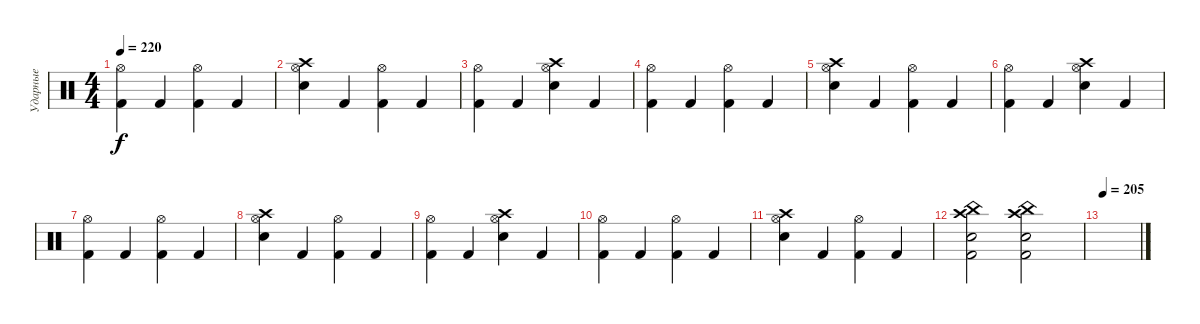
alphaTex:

\track ("Ударные" "Ударные") {instrument percussion}
\staff {score}
\articulation defaults
\ts (4 4)
\tempo 220
\clef neutral
\ks c
("Kick (hit) 2" "Hi-Hat (open)").4{dy f} "Kick (hit) 2".4 ("Kick (hit) 2" "Hi-Hat (open)").4 "Kick (hit) 2".4 |
("Electric Snare (hit)" "Hi-Hat (open)" "Crash high (hit)").4 "Kick (hit) 2".4 ("Kick (hit) 2" "Hi-Hat (open)").4 "Kick (hit) 2".4 |
("Kick (hit) 2" "Hi-Hat (open)").4 "Kick (hit) 2".4 ("Electric Snare (hit)" "Hi-Hat (open)" "Crash high (hit)").4 "Kick (hit) 2".4 |
("Kick (hit) 2" "Hi-Hat (open)").4 "Kick (hit) 2".4 ("Kick (hit) 2" "Hi-Hat (open)").4 "Kick (hit) 2".4 |
("Electric Snare (hit)" "Hi-Hat (open)" "Crash high (hit)").4 "Kick (hit) 2".4 ("Kick (hit) 2" "Hi-Hat (open)").4 "Kick (hit) 2".4 |
("Kick (hit) 2" "Hi-Hat (open)").4 "Kick (hit) 2".4 ("Electric Snare (hit)" "Hi-Hat (open)" "Crash high (hit)").4 "Kick (hit) 2".4 |
("Kick (hit) 2" "Hi-Hat (open)").4 "Kick (hit) 2".4 ("Kick (hit) 2" "Hi-Hat (open)").4 "Kick (hit) 2".4 |
("Electric Snare (hit)" "Hi-Hat (open)" "Crash high (hit)").4 "Kick (hit) 2".4 ("Kick (hit) 2" "Hi-Hat (open)").4 "Kick (hit) 2".4 |
("Kick (hit) 2" "Hi-Hat (open)").4 "Kick (hit) 2".4 ("Electric Snare (hit)" "Hi-Hat (open)" "Crash high (hit)").4 "Kick (hit) 2".4 |
("Kick (hit) 2" "Hi-Hat (open)").4 "Kick (hit) 2".4 ("Kick (hit) 2" "Hi-Hat (open)").4 "Kick (hit) 2".4 |
("Electric Snare (hit)" "Hi-Hat (open)" "Crash high (hit)").4 "Kick (hit) 2".4 ("Kick (hit) 2" "Hi-Hat (open)").4 "Kick (hit) 2".4 |
("Kick (hit) 2" "Electric Snare (hit)" "Crash high (hit)" "China (hit)").2 ("China (hit)" "Crash high (hit)" "Kick (hit) 2" "Electric Snare (hit)").2 |
\tempo 205
